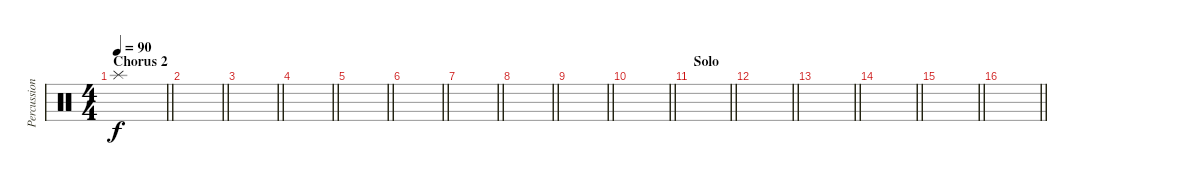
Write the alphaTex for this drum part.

\track ("Percussion" "Percussion") {mute instrument percussion}
\staff {score}
\articulation defaults
\ts (4 4)
\section ("" "Chorus 2")
\tempo 90
\clef neutral
\barLineRight lightlight
\ks c "Splash (hit)".1{dy f volume 16}
|
\barLineRight lightlight
|
\barLineRight lightlight
|
\barLineRight lightlight
|
\barLineRight lightlight
|
\barLineRight lightlight
|
\barLineRight lightlight
|
\barLineRight lightlight
|
\barLineRight lightlight
|
\barLineRight lightlight
|
\section ("" "Solo")
\barLineRight lightlight
|
\barLineRight lightlight
|
\barLineRight lightlight
|
\barLineRight lightlight
|
\barLineRight lightlight
|
\barLineRight lightlight
